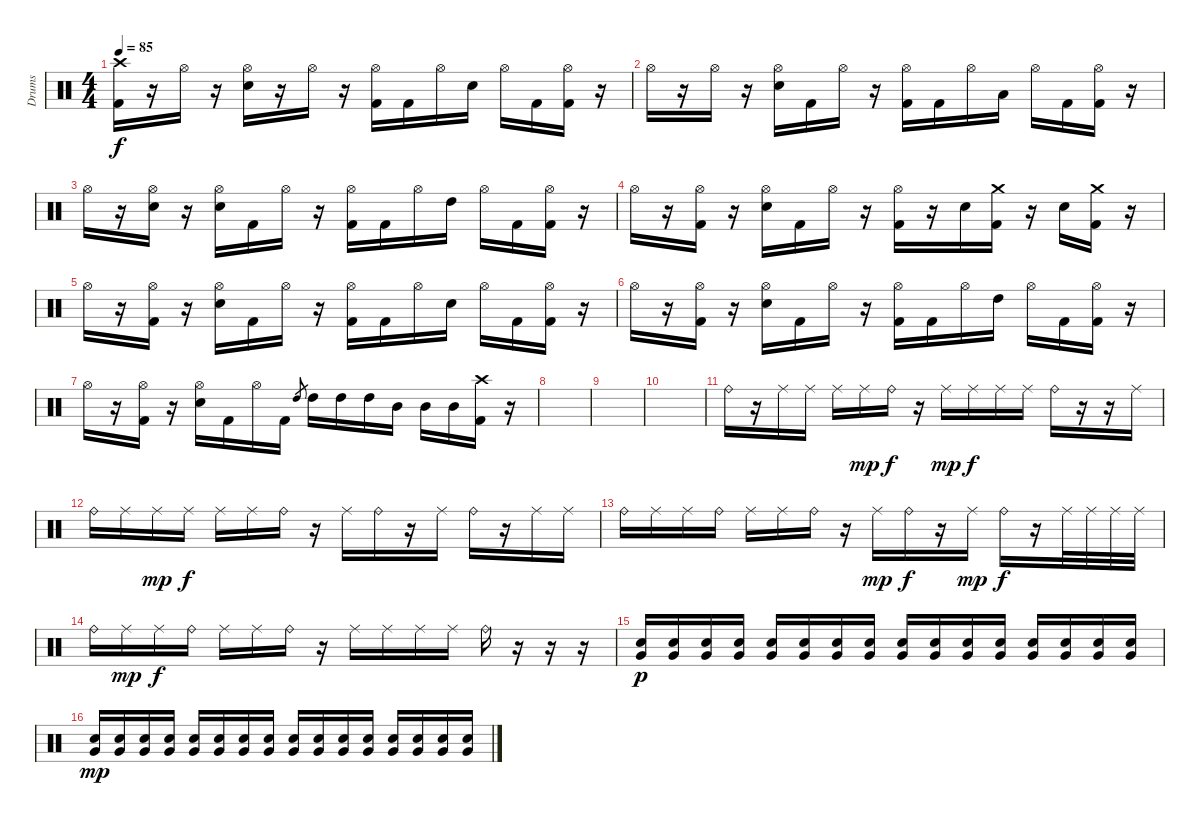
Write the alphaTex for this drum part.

\track ("Drums" "Drums") {instrument percussion}
\staff {score}
\articulation defaults
\ts (4 4)
\tempo 85
\clef neutral
\ks c
("Crash high (hit)" "Kick (hit) 2").16{dy f} r.16 "Hi-Hat (open)".16 r.16 ("Hi-Hat (open)" "Electric Snare (hit)").16 r.16 "Hi-Hat (open)".16 r.16 ("Hi-Hat (open)" "Kick (hit) 2").16 "Kick (hit) 2".16 "Hi-Hat (open)".16 "Electric Snare (hit)".16 "Hi-Hat (open)".16 "Kick (hit) 2".16 ("Hi-Hat (open)" "Kick (hit) 2").16 r.16 |
"Hi-Hat (open)".16 r.16 "Hi-Hat (open)".16 r.16 ("Hi-Hat (open)" "Electric Snare (hit)").16 "Kick (hit) 2".16 "Hi-Hat (open)".16 r.16 ("Hi-Hat (open)" "Kick (hit) 2").16 "Kick (hit) 2".16 "Hi-Hat (open)".16 "Low Tom (hit)".16 "Hi-Hat (open)".16 "Kick (hit) 2".16 ("Hi-Hat (open)" "Kick (hit) 2").16 r.16 |
"Hi-Hat (open)".16 r.16 ("Hi-Hat (open)" "Electric Snare (hit)").16 r.16 ("Hi-Hat (open)" "Electric Snare (hit)").16 "Kick (hit) 2".16 "Hi-Hat (open)".16 r.16 ("Hi-Hat (open)" "Kick (hit) 2").16 "Kick (hit) 2".16 "Hi-Hat (open)".16 "High Tom (hit)".16 "Hi-Hat (open)".16 "Kick (hit) 2".16 ("Hi-Hat (open)" "Kick (hit) 2").16 r.16 |
"Hi-Hat (open)".16 r.16 ("Hi-Hat (open)" "Kick (hit) 2").16 r.16 ("Hi-Hat (open)" "Electric Snare (hit)").16 "Kick (hit) 2".16 "Hi-Hat (open)".16 r.16 ("Hi-Hat (open)" "Kick (hit) 2").16 r.16 "Electric Snare (hit)".16 ("Crash medium (hit)" "Kick (hit) 2").16 r.16 "Electric Snare (hit)".16 ("Crash medium (hit)" "Kick (hit) 2").16 r.16 |
"Hi-Hat (open)".16 r.16 ("Hi-Hat (open)" "Kick (hit) 2").16 r.16 ("Hi-Hat (open)" "Electric Snare (hit)").16 "Kick (hit) 2".16 "Hi-Hat (open)".16 r.16 ("Hi-Hat (open)" "Kick (hit) 2").16 "Kick (hit) 2".16 "Hi-Hat (open)".16 "Electric Snare (hit)".16 "Hi-Hat (open)".16 "Kick (hit) 2".16 ("Hi-Hat (open)" "Kick (hit) 2").16 r.16 |
"Hi-Hat (open)".16 r.16 ("Hi-Hat (open)" "Kick (hit) 2").16 r.16 ("Hi-Hat (open)" "Electric Snare (hit)").16 "Kick (hit) 2".16 "Hi-Hat (open)".16 r.16 ("Hi-Hat (open)" "Kick (hit) 2").16 "Kick (hit) 2".16 "Hi-Hat (open)".16 "High Tom (hit)".16 "Hi-Hat (open)".16 "Kick (hit) 2".16 ("Hi-Hat (open)" "Kick (hit) 2").16 r.16 |
"Hi-Hat (open)".16 r.16 ("Hi-Hat (open)" "Kick (hit) 2").16 r.16 ("Hi-Hat (open)" "Electric Snare (hit)").16 "Kick (hit) 2".16 "Hi-Hat (open)".16 "Kick (hit) 2".16 "High Tom (hit)".8{gr} "High Tom (hit)".16 "High Tom (hit)".16 "High Tom (hit)".16 "Mid Tom (hit)".16 "Mid Tom (hit)".16 "Mid Tom (hit)".16 ("Crash high (hit)" "Kick (hit) 2").16 r.16 |
|
|
|
"Ride (bell)".16 r.16 "Ride (middle)".16 "Ride (middle)".16 "Ride (middle)".16 "Ride (middle)".16{dy mp} "Ride (bell)".16{dy f} r.16 "Ride (middle)".16{dy mp} "Ride (middle)".16{dy f} "Ride (middle)".16 "Ride (middle)".16 "Ride (bell)".16 r.16 r.16 "Ride (middle)".16 |
"Ride (bell)".16 "Ride (middle)".16 "Ride (middle)".16{dy mp} "Ride (middle)".16{dy f} "Ride (middle)".16 "Ride (middle)".16 "Ride (bell)".16 r.16 "Ride (middle)".16 "Ride (bell)".16 r.16 "Ride (middle)".16 "Ride (bell)".16 r.16 "Ride (middle)".16 "Ride (middle)".16 |
"Ride (bell)".16 "Ride (middle)".16 "Ride (middle)".16 "Ride (bell)".16 "Ride (middle)".16 "Ride (middle)".16 "Ride (bell)".16 r.16 "Ride (middle)".16{dy mp} "Ride (bell)".16{dy f} r.16 "Ride (middle)".16{dy mp} "Ride (bell)".16{dy f} r.16 "Ride (middle)".32 "Ride (middle)".32 "Ride (middle)".32 "Ride (middle)".32 |
"Ride (bell)".16 "Ride (middle)".16{dy mp} "Ride (middle)".16{dy f} "Ride (bell)".16 "Ride (middle)".16 "Ride (middle)".16 "Ride (bell)".16 r.16 "Ride (middle)".16 "Ride (middle)".16 "Ride (middle)".16 "Ride (middle)".16 "Ride (bell)".16 r.16 r.16 r.16 |
("Very Low Tom (hit)" "Electric Snare (hit)").16{dy p} ("Very Low Tom (hit)" "Electric Snare (hit)").16 ("Very Low Tom (hit)" "Electric Snare (hit)").16 ("Very Low Tom (hit)" "Electric Snare (hit)").16 ("Very Low Tom (hit)" "Electric Snare (hit)").16 ("Very Low Tom (hit)" "Electric Snare (hit)").16 ("Very Low Tom (hit)" "Electric Snare (hit)").16 ("Very Low Tom (hit)" "Electric Snare (hit)").16 ("Very Low Tom (hit)" "Electric Snare (hit)").16 ("Very Low Tom (hit)" "Electric Snare (hit)").16 ("Very Low Tom (hit)" "Electric Snare (hit)").16 ("Very Low Tom (hit)" "Electric Snare (hit)").16 ("Very Low Tom (hit)" "Electric Snare (hit)").16 ("Very Low Tom (hit)" "Electric Snare (hit)").16 ("Very Low Tom (hit)" "Electric Snare (hit)").16 ("Very Low Tom (hit)" "Electric Snare (hit)").16 |
("Very Low Tom (hit)" "Electric Snare (hit)").16{dy mp} ("Very Low Tom (hit)" "Electric Snare (hit)").16 ("Very Low Tom (hit)" "Electric Snare (hit)").16 ("Very Low Tom (hit)" "Electric Snare (hit)").16 ("Very Low Tom (hit)" "Electric Snare (hit)").16 ("Very Low Tom (hit)" "Electric Snare (hit)").16 ("Very Low Tom (hit)" "Electric Snare (hit)").16 ("Very Low Tom (hit)" "Electric Snare (hit)").16 ("Very Low Tom (hit)" "Electric Snare (hit)").16 ("Very Low Tom (hit)" "Electric Snare (hit)").16 ("Very Low Tom (hit)" "Electric Snare (hit)").16 ("Very Low Tom (hit)" "Electric Snare (hit)").16 ("Very Low Tom (hit)" "Electric Snare (hit)").16 ("Very Low Tom (hit)" "Electric Snare (hit)").16 ("Very Low Tom (hit)" "Electric Snare (hit)").16 ("Very Low Tom (hit)" "Electric Snare (hit)").16
